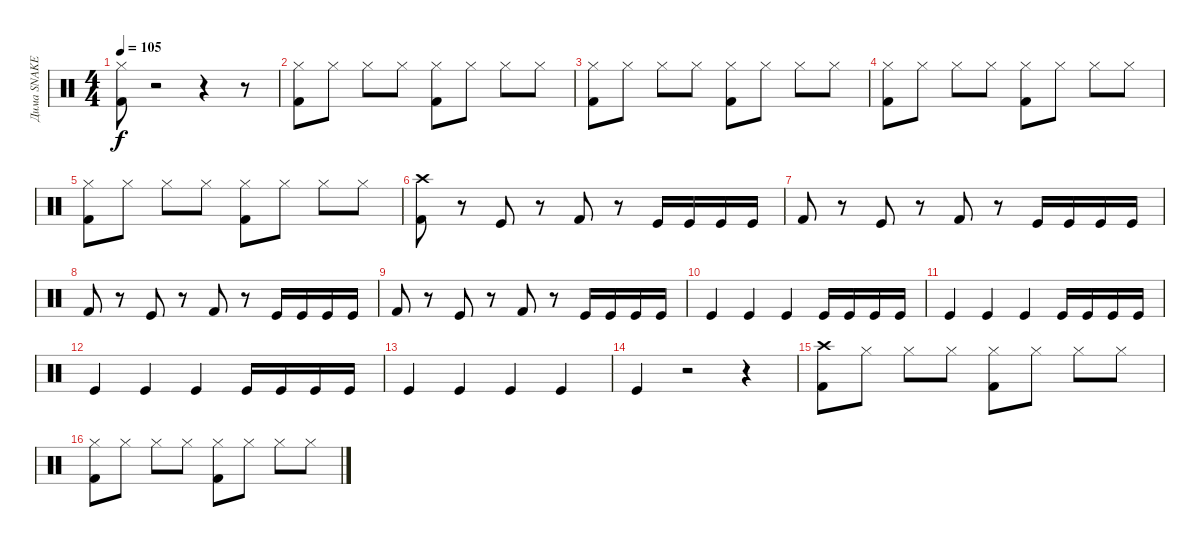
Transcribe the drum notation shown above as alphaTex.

\track ("Дима SNAKE" "Дима SNAKE") {instrument percussion}
\staff {score}
\articulation defaults
\ts (4 4)
\tempo 105
\clef neutral
\ks c
("Hi-Hat (closed)" "Kick (hit) 2").8{dy f} r.2 r.4 r.8 |
("Hi-Hat (closed)" "Kick (hit) 2").8 "Hi-Hat (closed)".8 "Hi-Hat (closed)".8 "Hi-Hat (closed)".8 ("Hi-Hat (closed)" "Kick (hit) 2").8 "Hi-Hat (closed)".8 "Hi-Hat (closed)".8 "Hi-Hat (closed)".8 |
("Hi-Hat (closed)" "Kick (hit) 2").8 "Hi-Hat (closed)".8 "Hi-Hat (closed)".8 "Hi-Hat (closed)".8 ("Hi-Hat (closed)" "Kick (hit) 2").8 "Hi-Hat (closed)".8 "Hi-Hat (closed)".8 "Hi-Hat (closed)".8 |
("Hi-Hat (closed)" "Kick (hit) 2").8 "Hi-Hat (closed)".8 "Hi-Hat (closed)".8 "Hi-Hat (closed)".8 ("Hi-Hat (closed)" "Kick (hit) 2").8 "Hi-Hat (closed)".8 "Hi-Hat (closed)".8 "Hi-Hat (closed)".8 |
("Hi-Hat (closed)" "Kick (hit) 2").8 "Hi-Hat (closed)".8 "Hi-Hat (closed)".8 "Hi-Hat (closed)".8 ("Hi-Hat (closed)" "Kick (hit) 2").8 "Hi-Hat (closed)".8 "Hi-Hat (closed)".8 "Hi-Hat (closed)".8 |
("Crash high (hit)" "Kick (hit) 2").8 r.8 "Kick (hit)".8 r.8 "Kick (hit) 2".8 r.8 "Kick (hit)".16 "Kick (hit)".16 "Kick (hit)".16 "Kick (hit)".16 |
"Kick (hit) 2".8 r.8 "Kick (hit)".8 r.8 "Kick (hit) 2".8 r.8 "Kick (hit)".16 "Kick (hit)".16 "Kick (hit)".16 "Kick (hit)".16 |
"Kick (hit) 2".8 r.8 "Kick (hit)".8 r.8 "Kick (hit) 2".8 r.8 "Kick (hit)".16 "Kick (hit)".16 "Kick (hit)".16 "Kick (hit)".16 |
"Kick (hit) 2".8 r.8 "Kick (hit)".8 r.8 "Kick (hit) 2".8 r.8 "Kick (hit)".16 "Kick (hit)".16 "Kick (hit)".16 "Kick (hit)".16 |
"Kick (hit)".4 "Kick (hit)".4 "Kick (hit)".4 "Kick (hit)".16 "Kick (hit)".16 "Kick (hit)".16 "Kick (hit)".16 |
"Kick (hit)".4 "Kick (hit)".4 "Kick (hit)".4 "Kick (hit)".16 "Kick (hit)".16 "Kick (hit)".16 "Kick (hit)".16 |
"Kick (hit)".4 "Kick (hit)".4 "Kick (hit)".4 "Kick (hit)".16 "Kick (hit)".16 "Kick (hit)".16 "Kick (hit)".16 |
"Kick (hit)".4 "Kick (hit)".4 "Kick (hit)".4 "Kick (hit)".4 |
"Kick (hit)".4 r.2 r.4 |
("Crash high (hit)" "Kick (hit) 2").8 "Hi-Hat (closed)".8 "Hi-Hat (closed)".8 "Hi-Hat (closed)".8 ("Hi-Hat (closed)" "Kick (hit) 2").8 "Hi-Hat (closed)".8 "Hi-Hat (closed)".8 "Hi-Hat (closed)".8 |
("Hi-Hat (closed)" "Kick (hit) 2").8 "Hi-Hat (closed)".8 "Hi-Hat (closed)".8 "Hi-Hat (closed)".8 ("Hi-Hat (closed)" "Kick (hit) 2").8 "Hi-Hat (closed)".8 "Hi-Hat (closed)".8 "Hi-Hat (closed)".8
